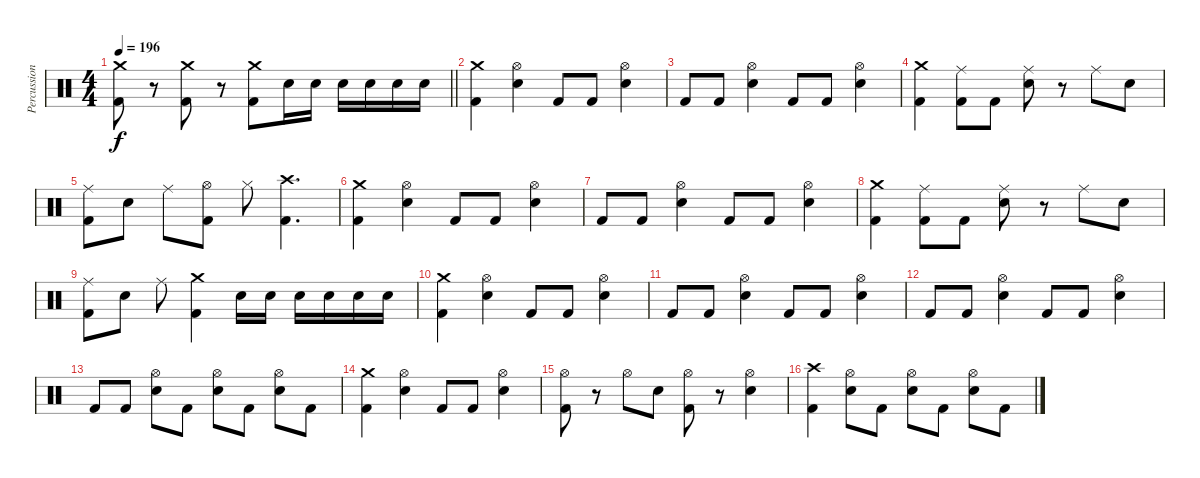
\track ("Percussion" "Percussion") {instrument percussion}
\staff {score}
\articulation defaults
\ts (4 4)
\tempo 196
\clef neutral
\barLineRight lightlight
\ks c
("Crash medium (hit)" "Kick (hit) 2").8{dy f} r.8 ("Crash medium (hit)" "Kick (hit) 2").8 r.8 ("Crash medium (hit)" "Kick (hit) 2").8 "Electric Snare (hit)".16 "Electric Snare (hit)".16 "Electric Snare (hit)".16 "Electric Snare (hit)".16 "Electric Snare (hit)".16 "Electric Snare (hit)".16 |
("Crash medium (hit)" "Kick (hit) 2").4 ("Hi-Hat (open)" "Electric Snare (hit)").4 "Kick (hit) 2".8 "Kick (hit) 2".8 ("Hi-Hat (open)" "Electric Snare (hit)").4 |
"Kick (hit) 2".8 "Kick (hit) 2".8 ("Hi-Hat (open)" "Electric Snare (hit)").4 "Kick (hit) 2".8 "Kick (hit) 2".8 ("Hi-Hat (open)" "Electric Snare (hit)").4 |
("Crash medium (hit)" "Kick (hit) 2").4 ("Ride (middle)" "Kick (hit) 2").8 "Kick (hit) 2".8 ("Ride (middle)" "Electric Snare (hit)").8 r.8 "Ride (middle)".8 "Electric Snare (hit)".8 |
("Ride (middle)" "Kick (hit) 2").8 "Electric Snare (hit)".8 "Ride (middle)".8 ("Hi-Hat (open)" "Kick (hit) 2").8 "Hi-Hat (closed)".8 ("Crash high (hit)" "Kick (hit) 2").4{d} |
("Crash medium (hit)" "Kick (hit) 2").4 ("Hi-Hat (open)" "Electric Snare (hit)").4 "Kick (hit) 2".8 "Kick (hit) 2".8 ("Hi-Hat (open)" "Electric Snare (hit)").4 |
"Kick (hit) 2".8 "Kick (hit) 2".8 ("Hi-Hat (open)" "Electric Snare (hit)").4 "Kick (hit) 2".8 "Kick (hit) 2".8 ("Hi-Hat (open)" "Electric Snare (hit)").4 |
("Crash medium (hit)" "Kick (hit) 2").4 ("Ride (middle)" "Kick (hit) 2").8 "Kick (hit) 2".8 ("Ride (middle)" "Electric Snare (hit)").8 r.8 "Ride (middle)".8 "Electric Snare (hit)".8 |
("Ride (middle)" "Kick (hit) 2").8 "Electric Snare (hit)".8 "Ride (middle)".8 ("Crash medium (hit)" "Kick (hit) 2").4 "Electric Snare (hit)".16 "Electric Snare (hit)".16 "Electric Snare (hit)".16 "Electric Snare (hit)".16 "Electric Snare (hit)".16 "Electric Snare (hit)".16 |
("Crash medium (hit)" "Kick (hit) 2").4 ("Hi-Hat (open)" "Electric Snare (hit)").4 "Kick (hit) 2".8 "Kick (hit) 2".8 ("Hi-Hat (open)" "Electric Snare (hit)").4 |
"Kick (hit) 2".8 "Kick (hit) 2".8 ("Hi-Hat (open)" "Electric Snare (hit)").4 "Kick (hit) 2".8 "Kick (hit) 2".8 ("Hi-Hat (open)" "Electric Snare (hit)").4 |
"Kick (hit) 2".8 "Kick (hit) 2".8 ("Hi-Hat (open)" "Electric Snare (hit)").4 "Kick (hit) 2".8 "Kick (hit) 2".8 ("Hi-Hat (open)" "Electric Snare (hit)").4 |
"Kick (hit) 2".8 "Kick (hit) 2".8 ("Hi-Hat (open)" "Electric Snare (hit)").8 "Kick (hit) 2".8 ("Hi-Hat (open)" "Electric Snare (hit)").8 "Kick (hit) 2".8 ("Hi-Hat (open)" "Electric Snare (hit)").8 "Kick (hit) 2".8 |
("Crash medium (hit)" "Kick (hit) 2").4 ("Hi-Hat (open)" "Electric Snare (hit)").4 "Kick (hit) 2".8 "Kick (hit) 2".8 ("Hi-Hat (open)" "Electric Snare (hit)").4 |
("Hi-Hat (open)" "Kick (hit) 2").8 r.8 "Hi-Hat (open)".8 "Electric Snare (hit)".8 ("Hi-Hat (open)" "Kick (hit) 2").8 r.8 ("Hi-Hat (open)" "Electric Snare (hit)").4 |
("Crash high (hit)" "Kick (hit) 2").4 ("Hi-Hat (open)" "Electric Snare (hit)").8 "Kick (hit) 2".8 ("Hi-Hat (open)" "Electric Snare (hit)").8 "Kick (hit) 2".8 ("Hi-Hat (open)" "Electric Snare (hit)").8 "Kick (hit) 2".8
